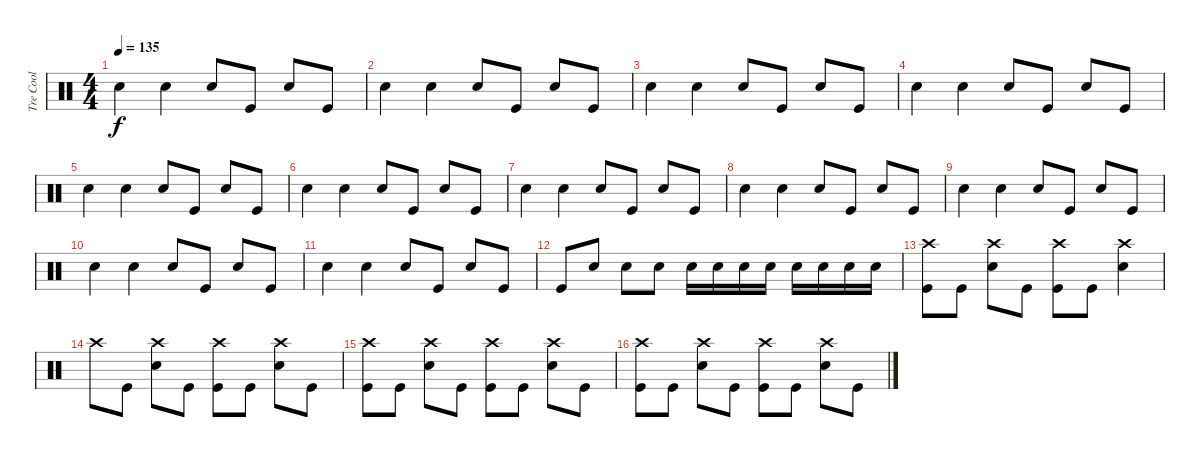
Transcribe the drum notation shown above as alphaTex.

\track ("Tre Cool" "Tre Cool") {instrument percussion}
\staff {score}
\articulation defaults
\ts (4 4)
\tempo 135
\clef neutral
\ks c "Snare (hit) 2".4{dy f} "Snare (hit) 2".4 "Snare (hit) 2".8 "Kick (hit)".8 "Snare (hit) 2".8 "Kick (hit)".8
|
"Snare (hit) 2".4 "Snare (hit) 2".4 "Snare (hit) 2".8 "Kick (hit)".8 "Snare (hit) 2".8 "Kick (hit)".8 |
"Snare (hit) 2".4 "Snare (hit) 2".4 "Snare (hit) 2".8 "Kick (hit)".8 "Snare (hit) 2".8 "Kick (hit)".8 |
"Snare (hit) 2".4 "Snare (hit) 2".4 "Snare (hit) 2".8 "Kick (hit)".8 "Snare (hit) 2".8 "Kick (hit)".8 |
"Snare (hit) 2".4 "Snare (hit) 2".4 "Snare (hit) 2".8 "Kick (hit)".8 "Snare (hit) 2".8 "Kick (hit)".8 |
"Snare (hit) 2".4 "Snare (hit) 2".4 "Snare (hit) 2".8 "Kick (hit)".8 "Snare (hit) 2".8 "Kick (hit)".8 |
"Snare (hit) 2".4 "Snare (hit) 2".4 "Snare (hit) 2".8 "Kick (hit)".8 "Snare (hit) 2".8 "Kick (hit)".8 |
"Snare (hit) 2".4 "Snare (hit) 2".4 "Snare (hit) 2".8 "Kick (hit)".8 "Snare (hit) 2".8 "Kick (hit)".8 |
"Snare (hit) 2".4 "Snare (hit) 2".4 "Snare (hit) 2".8 "Kick (hit)".8 "Snare (hit) 2".8 "Kick (hit)".8 |
"Snare (hit) 2".4 "Snare (hit) 2".4 "Snare (hit) 2".8 "Kick (hit)".8 "Snare (hit) 2".8 "Kick (hit)".8 |
"Snare (hit) 2".4 "Snare (hit) 2".4 "Snare (hit) 2".8 "Kick (hit)".8 "Snare (hit) 2".8 "Kick (hit)".8 |
"Kick (hit)".8 "Snare (hit) 2".8 "Snare (hit) 2".8 "Snare (hit) 2".8 "Snare (hit) 2".16 "Snare (hit) 2".16 "Snare (hit) 2".16 "Snare (hit) 2".16 "Snare (hit) 2".16 "Snare (hit) 2".16 "Snare (hit) 2".16 "Snare (hit) 2".16 |
("Crash high (hit)" "Kick (hit)").8 "Kick (hit)".8 ("Crash high (hit)" "Snare (hit) 2").8 "Kick (hit)".8 ("Crash high (hit)" "Kick (hit)").8 "Kick (hit)".8 ("Crash high (hit)" "Snare (hit) 2").4 |
"Crash high (hit)".8 "Kick (hit)".8 ("Crash high (hit)" "Snare (hit) 2").8 "Kick (hit)".8 ("Crash high (hit)" "Kick (hit)").8 "Kick (hit)".8 ("Crash high (hit)" "Snare (hit) 2").8 "Kick (hit)".8 |
("Crash high (hit)" "Kick (hit)").8 "Kick (hit)".8 ("Crash high (hit)" "Snare (hit) 2").8 "Kick (hit)".8 ("Crash high (hit)" "Kick (hit)").8 "Kick (hit)".8 ("Crash high (hit)" "Snare (hit) 2").8 "Kick (hit)".8 |
("Crash high (hit)" "Kick (hit)").8 "Kick (hit)".8 ("Crash high (hit)" "Snare (hit) 2").8 "Kick (hit)".8 ("Crash high (hit)" "Kick (hit)").8 "Kick (hit)".8 ("Crash high (hit)" "Snare (hit) 2").8 "Kick (hit)".8
